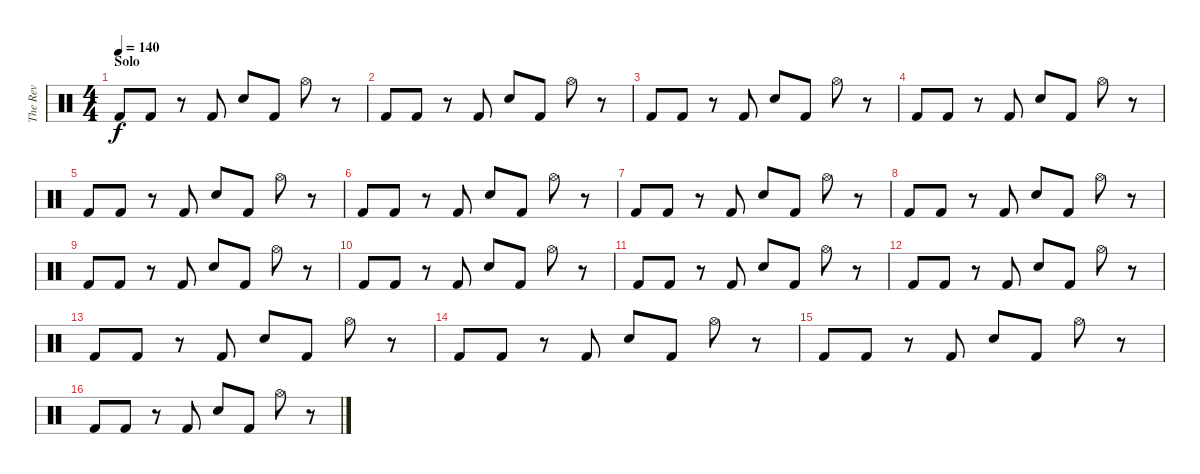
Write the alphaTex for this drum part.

\track ("The Rev" "The Rev") {instrument percussion}
\staff {score}
\articulation defaults
\ts (4 4)
\section ("" "Solo")
\tempo 140
\clef neutral
\ks c "Kick (hit) 2".8{dy f} "Kick (hit) 2".8
r.8 "Kick (hit) 2".8 "Snare (hit) 2".8 "Kick (hit) 2".8 "Hi-Hat (open)".8 r.8 |
"Kick (hit) 2".8 "Kick (hit) 2".8 r.8 "Kick (hit) 2".8 "Snare (hit) 2".8 "Kick (hit) 2".8 "Hi-Hat (open)".8 r.8 |
"Kick (hit) 2".8 "Kick (hit) 2".8 r.8 "Kick (hit) 2".8 "Snare (hit) 2".8 "Kick (hit) 2".8 "Hi-Hat (open)".8 r.8 |
"Kick (hit) 2".8 "Kick (hit) 2".8 r.8 "Kick (hit) 2".8 "Snare (hit) 2".8 "Kick (hit) 2".8 "Hi-Hat (open)".8 r.8 |
"Kick (hit) 2".8 "Kick (hit) 2".8 r.8 "Kick (hit) 2".8 "Snare (hit) 2".8 "Kick (hit) 2".8 "Hi-Hat (open)".8 r.8 |
"Kick (hit) 2".8 "Kick (hit) 2".8 r.8 "Kick (hit) 2".8 "Snare (hit) 2".8 "Kick (hit) 2".8 "Hi-Hat (open)".8 r.8 |
"Kick (hit) 2".8 "Kick (hit) 2".8 r.8 "Kick (hit) 2".8 "Snare (hit) 2".8 "Kick (hit) 2".8 "Hi-Hat (open)".8 r.8 |
"Kick (hit) 2".8 "Kick (hit) 2".8 r.8 "Kick (hit) 2".8 "Snare (hit) 2".8 "Kick (hit) 2".8 "Hi-Hat (open)".8 r.8 |
"Kick (hit) 2".8 "Kick (hit) 2".8 r.8 "Kick (hit) 2".8 "Snare (hit) 2".8 "Kick (hit) 2".8 "Hi-Hat (open)".8 r.8 |
"Kick (hit) 2".8 "Kick (hit) 2".8 r.8 "Kick (hit) 2".8 "Snare (hit) 2".8 "Kick (hit) 2".8 "Hi-Hat (open)".8 r.8 |
"Kick (hit) 2".8 "Kick (hit) 2".8 r.8 "Kick (hit) 2".8 "Snare (hit) 2".8 "Kick (hit) 2".8 "Hi-Hat (open)".8 r.8 |
"Kick (hit) 2".8 "Kick (hit) 2".8 r.8 "Kick (hit) 2".8 "Snare (hit) 2".8 "Kick (hit) 2".8 "Hi-Hat (open)".8 r.8 |
"Kick (hit) 2".8 "Kick (hit) 2".8 r.8 "Kick (hit) 2".8 "Snare (hit) 2".8 "Kick (hit) 2".8 "Hi-Hat (open)".8 r.8 |
"Kick (hit) 2".8 "Kick (hit) 2".8 r.8 "Kick (hit) 2".8 "Snare (hit) 2".8 "Kick (hit) 2".8 "Hi-Hat (open)".8 r.8 |
"Kick (hit) 2".8 "Kick (hit) 2".8 r.8 "Kick (hit) 2".8 "Snare (hit) 2".8 "Kick (hit) 2".8 "Hi-Hat (open)".8 r.8 |
"Kick (hit) 2".8 "Kick (hit) 2".8 r.8 "Kick (hit) 2".8 "Snare (hit) 2".8 "Kick (hit) 2".8 "Hi-Hat (open)".8 r.8
